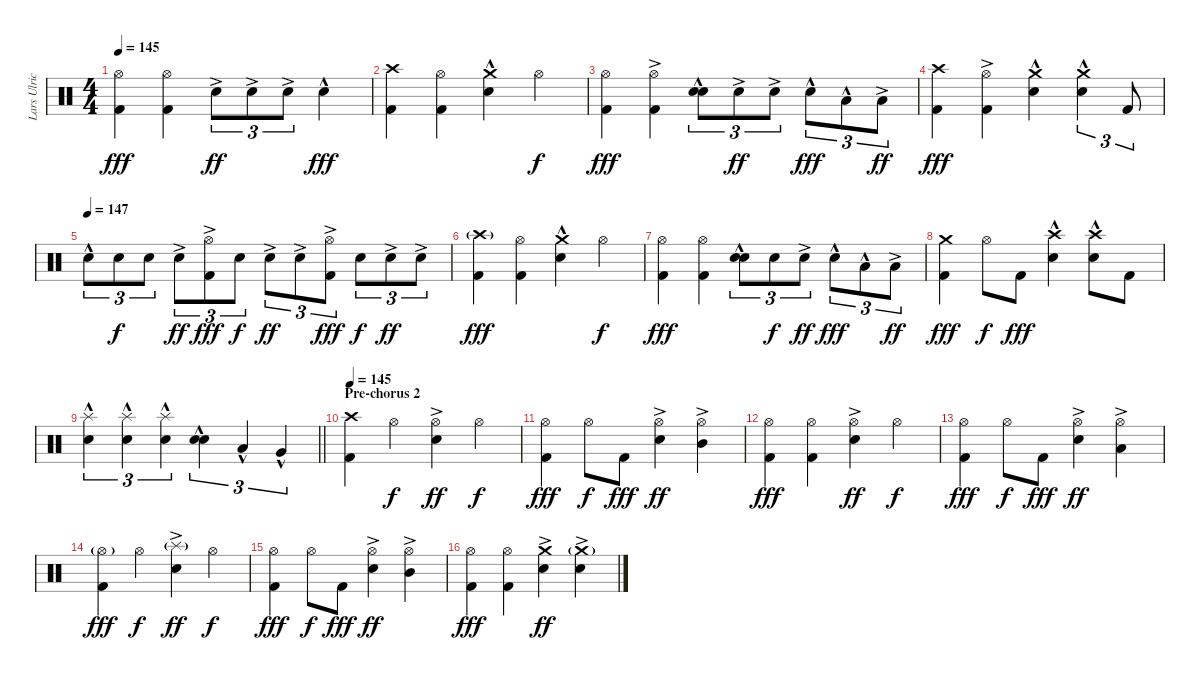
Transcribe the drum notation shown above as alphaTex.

\track ("Lars Ulrich (Drums)" "Lars Ulric") {instrument percussion}
\staff {score}
\articulation defaults
\ts (4 4)
\tempo 145
\clef neutral
\ks c
("Hi-Hat (open)" "Kick (hit) 2").4{dy fff} ("Hi-Hat (open)" "Kick (hit) 2").4 "Electric Snare (hit)"{ac}.8{tu (3 2) dy ff} "Electric Snare (hit)"{ac}.8{tu (3 2)} "Electric Snare (hit)"{ac}.8{tu (3 2)} "Electric Snare (hit)"{hac}.4{dy fff} |
("Crash high (hit)" "Kick (hit) 2").4 ("Hi-Hat (open)" "Kick (hit) 2").4 ("Crash medium (hit)" "Electric Snare (hit)"{hac}).4 "Hi-Hat (open)".4{dy f} |
("Hi-Hat (open)" "Kick (hit) 2").4{dy fff} ("Hi-Hat (open)"{ac} "Kick (hit) 2").4 ("Electric Snare (hit)"{hac} "Electric Snare (hit)"{hac}).8{tu (3 2) bd 120} "Electric Snare (hit)"{ac}.8{tu (3 2) dy ff} "Electric Snare (hit)"{ac}.8{tu (3 2)} "Electric Snare (hit)"{hac}.8{tu (3 2) dy fff} "Low Tom (hit)"{hac}.8{tu (3 2)} "Low Tom (hit)"{ac}.8{tu (3 2) dy ff} |
("Crash high (hit)" "Kick (hit) 2").4{dy fff} ("Hi-Hat (open)"{ac} "Kick (hit) 2").4 ("Crash medium (hit)" "Electric Snare (hit)"{hac}).4 ("Crash medium (hit)" "Electric Snare (hit)"{hac}).4{tu (3 2)} "Kick (hit) 2".8{tu (3 2)} |
\tempo (147)
"Electric Snare (hit)"{hac}.8{tu (3 2)} "Electric Snare (hit)".8{tu (3 2) dy f} "Electric Snare (hit)".8{tu (3 2)} "Electric Snare (hit)"{ac}.8{tu (3 2) dy ff} ("Hi-Hat (open)"{ac} "Kick (hit) 2").8{tu (3 2) dy fff} "Electric Snare (hit)".8{tu (3 2) dy f} "Electric Snare (hit)"{ac}.8{tu (3 2) dy ff} "Electric Snare (hit)"{ac}.8{tu (3 2)} ("Hi-Hat (open)"{ac} "Kick (hit) 2").8{tu (3 2) dy fff} "Electric Snare (hit)".8{tu (3 2) dy f} "Electric Snare (hit)"{ac}.8{tu (3 2) dy ff} "Electric Snare (hit)"{ac}.8{tu (3 2)} |
("Crash high (hit)"{g} "Kick (hit) 2").4{dy fff} ("Hi-Hat (open)" "Kick (hit) 2").4 ("Crash medium (hit)" "Electric Snare (hit)"{hac}).4 "Hi-Hat (open)".4{dy f} |
("Hi-Hat (open)" "Kick (hit) 2").4{dy fff} ("Hi-Hat (open)" "Kick (hit) 2").4 ("Electric Snare (hit)"{hac} "Electric Snare (hit)"{hac}).8{tu (3 2) bd 60} "Electric Snare (hit)".8{tu (3 2) dy f} "Electric Snare (hit)"{ac}.8{tu (3 2) dy ff} "Electric Snare (hit)"{hac}.8{tu (3 2) dy fff} "Low Tom (hit)"{hac}.8{tu (3 2)} "Low Tom (hit)"{ac}.8{tu (3 2) dy ff} |
("Crash medium (hit)" "Kick (hit) 2").4{dy fff} "Hi-Hat (open)".8{dy f} "Kick (hit) 2".8{dy fff} ("Crash high (hit)" "Electric Snare (hit)"{hac}).4 ("Crash high (hit)" "Electric Snare (hit)"{hac}).8 "Kick (hit) 2".8 |
\barLineRight lightlight
("Splash (hit)" "Electric Snare (hit)"{hac}).4{tu (3 2)} ("Splash (hit)" "Electric Snare (hit)"{hac}).4{tu (3 2)} ("Splash (hit)" "Electric Snare (hit)"{hac}).4{tu (3 2)} ("Electric Snare (hit)"{hac} "Electric Snare (hit)"{hac}).4{tu (3 2) bd 60} "Low Tom (hit)"{hac}.4{tu (3 2)} "Very Low Tom (hit)"{hac}.4{tu (3 2)} |
\section ("" "Pre-chorus 2")
\tempo 145
("Crash high (hit)" "Kick (hit) 2").4 "Hi-Hat (open)".4{dy f} ("Hi-Hat (open)"{ac} "Electric Snare (hit)"{ac}).4{dy ff} "Hi-Hat (open)".4{dy f} |
("Hi-Hat (open)" "Kick (hit) 2").4{dy fff} "Hi-Hat (open)".8{dy f} "Kick (hit) 2".8{dy fff} ("Hi-Hat (open)"{ac} "Electric Snare (hit)"{ac}).4{dy ff} ("Hi-Hat (open)" "Mid Tom (hit)"{ac}).4 |
("Hi-Hat (open)" "Kick (hit) 2").4{dy fff} ("Hi-Hat (open)" "Kick (hit) 2").4 ("Hi-Hat (open)"{ac} "Electric Snare (hit)"{ac}).4{dy ff} "Hi-Hat (open)".4{dy f} |
("Hi-Hat (open)" "Kick (hit) 2").4{dy fff} "Hi-Hat (open)".8{dy f} "Kick (hit) 2".8{dy fff} ("Hi-Hat (open)"{ac} "Electric Snare (hit)"{ac}).4{dy ff} ("Hi-Hat (open)" "Low Tom (hit)"{ac}).4 |
("Hi-Hat (open)"{g} "Kick (hit) 2").4{dy fff} "Hi-Hat (open)".4{dy f} ("Splash (hit)"{g} "Electric Snare (hit)"{ac}).4{dy ff} "Hi-Hat (open)".4{dy f} |
("Hi-Hat (open)" "Kick (hit) 2").4{dy fff} "Hi-Hat (open)".8{dy f} "Kick (hit) 2".8{dy fff} ("Hi-Hat (open)"{ac} "Electric Snare (hit)"{ac}).4{dy ff} ("Hi-Hat (open)" "Mid Tom (hit)"{ac}).4 |
("Hi-Hat (open)" "Kick (hit) 2").4{dy fff} ("Hi-Hat (open)" "Kick (hit) 2").4 ("Crash medium (hit)" "Electric Snare (hit)"{ac}).4{dy ff} ("Crash medium (hit)"{g} "Electric Snare (hit)"{ac}).4
